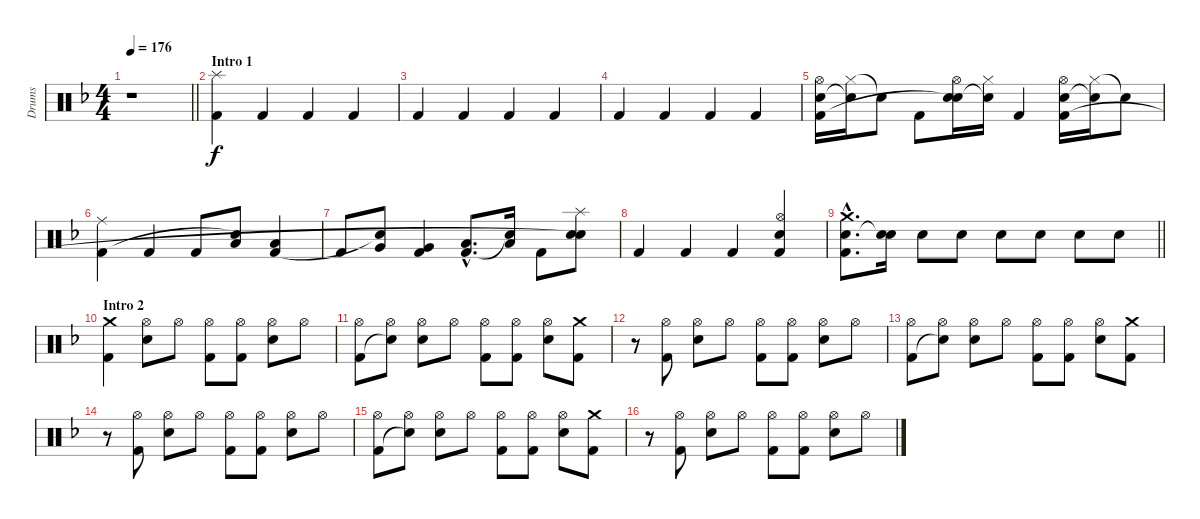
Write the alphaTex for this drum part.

\track ("Drums" "Drums") {instrument percussion}
\staff {score}
\articulation defaults
\ts (4 4)
\tempo 176
\clef neutral
\barLineRight lightlight
\ks f
r.1{dy f} |
\section ("" "Intro 1")
("Splash (hit)" "Kick (hit) 2").4 "Kick (hit) 2".4 "Kick (hit) 2".4 "Kick (hit) 2".4 |
"Kick (hit) 2".4 "Kick (hit) 2".4 "Kick (hit) 2".4 "Kick (hit) 2".4 |
"Kick (hit) 2".4 "Kick (hit) 2".4 "Kick (hit) 2".4 "Kick (hit) 2".4 |
("Hi-Hat (open)" "Electric Snare (hit)" "Kick (hit) 2").16 ("Hi-Hat (closed)" "Snare (hit)"{t}).16 "Snare (hit)"{t}.8 "Kick (hit) 2".8 ("Hi-Hat (open)" "Electric Snare (hit)" "Snare (hit)"{t}).16 ("Hi-Hat (closed)" "Snare (hit)"{t}).16 "Kick (hit) 2".4 ("Hi-Hat (open)" "Electric Snare (hit)" "Kick (hit) 2").16 ("Hi-Hat (closed)" "Snare (hit)"{t}).16 "Snare (hit)"{t}.8 |
("Ride (middle)" "Kick (hit) 2").4 "Kick (hit) 2".4 "Kick (hit) 2".8 ("Low Tom (hit)" "Snare (hit)"{t}).8 ("Low Tom (hit)" "Kick (hit) 2").4 |
"Kick (hit) 2".8 ("Very Low Tom (hit)" "Snare (hit)"{t}).8 ("Very Low Tom (hit)" "Kick (hit) 2").4 ("Low Floor Tom (hit)"{hac} "Kick (hit) 2"{hac}).8{d} ("Low Floor Tom (hit)" "Snare (hit)"{t}).16 "Kick (hit) 2".8 ("Splash (hit)" "Electric Snare (hit)" "Snare (hit)"{t}).8 |
"Kick (hit) 2".4 "Kick (hit) 2".4 "Kick (hit) 2".4 ("Hi-Hat (open)" "Electric Snare (hit)" "Kick (hit) 2").4 |
\barLineRight lightlight
("Crash medium (hit)"{hac} "Electric Snare (hit)"{hac} "Kick (hit) 2"{hac}).8{d} ("Electric Snare (hit)" "Snare (hit)"{t}).16 "Electric Snare (hit)".8 "Electric Snare (hit)".8 "Electric Snare (hit)".8 "Electric Snare (hit)".8 "Electric Snare (hit)".8 "Electric Snare (hit)".8 |
\section ("" "Intro 2")
("Crash medium (hit)" "Kick (hit) 2").4 ("Hi-Hat (open)" "Electric Snare (hit)").8 "Hi-Hat (open)".8 ("Hi-Hat (open)" "Kick (hit) 2").8 ("Hi-Hat (open)" "Kick (hit) 2").8 ("Hi-Hat (open)" "Electric Snare (hit)").8 "Hi-Hat (open)".8 |
("Hi-Hat (open)" "Kick (hit) 2").8 ("Hi-Hat (open)" "Snare (hit)"{t}).8 ("Hi-Hat (open)" "Electric Snare (hit)").8 "Hi-Hat (open)".8 ("Hi-Hat (open)" "Kick (hit) 2").8 ("Hi-Hat (open)" "Kick (hit) 2").8 ("Hi-Hat (open)" "Electric Snare (hit)").8 ("Crash medium (hit)" "Kick (hit) 2").8 |
r.8 ("Hi-Hat (open)" "Kick (hit) 2").8 ("Hi-Hat (open)" "Electric Snare (hit)").8 "Hi-Hat (open)".8 ("Hi-Hat (open)" "Kick (hit) 2").8 ("Hi-Hat (open)" "Kick (hit) 2").8 ("Hi-Hat (open)" "Electric Snare (hit)").8 "Hi-Hat (open)".8 |
("Hi-Hat (open)" "Kick (hit) 2").8 ("Hi-Hat (open)" "Snare (hit)"{t}).8 ("Hi-Hat (open)" "Electric Snare (hit)").8 "Hi-Hat (open)".8 ("Hi-Hat (open)" "Kick (hit) 2").8 ("Hi-Hat (open)" "Kick (hit) 2").8 ("Hi-Hat (open)" "Electric Snare (hit)").8 ("Crash medium (hit)" "Kick (hit) 2").8 |
r.8 ("Hi-Hat (open)" "Kick (hit) 2").8 ("Hi-Hat (open)" "Electric Snare (hit)").8 "Hi-Hat (open)".8 ("Hi-Hat (open)" "Kick (hit) 2").8 ("Hi-Hat (open)" "Kick (hit) 2").8 ("Hi-Hat (open)" "Electric Snare (hit)").8 "Hi-Hat (open)".8 |
("Hi-Hat (open)" "Kick (hit) 2").8 ("Hi-Hat (open)" "Snare (hit)"{t}).8 ("Hi-Hat (open)" "Electric Snare (hit)").8 "Hi-Hat (open)".8 ("Hi-Hat (open)" "Kick (hit) 2").8 ("Hi-Hat (open)" "Kick (hit) 2").8 ("Hi-Hat (open)" "Electric Snare (hit)").8 ("Crash medium (hit)" "Kick (hit) 2").8 |
r.8 ("Hi-Hat (open)" "Kick (hit) 2").8 ("Hi-Hat (open)" "Electric Snare (hit)").8 "Hi-Hat (open)".8 ("Hi-Hat (open)" "Kick (hit) 2").8 ("Hi-Hat (open)" "Kick (hit) 2").8 ("Hi-Hat (open)" "Electric Snare (hit)").8 "Hi-Hat (open)".8
